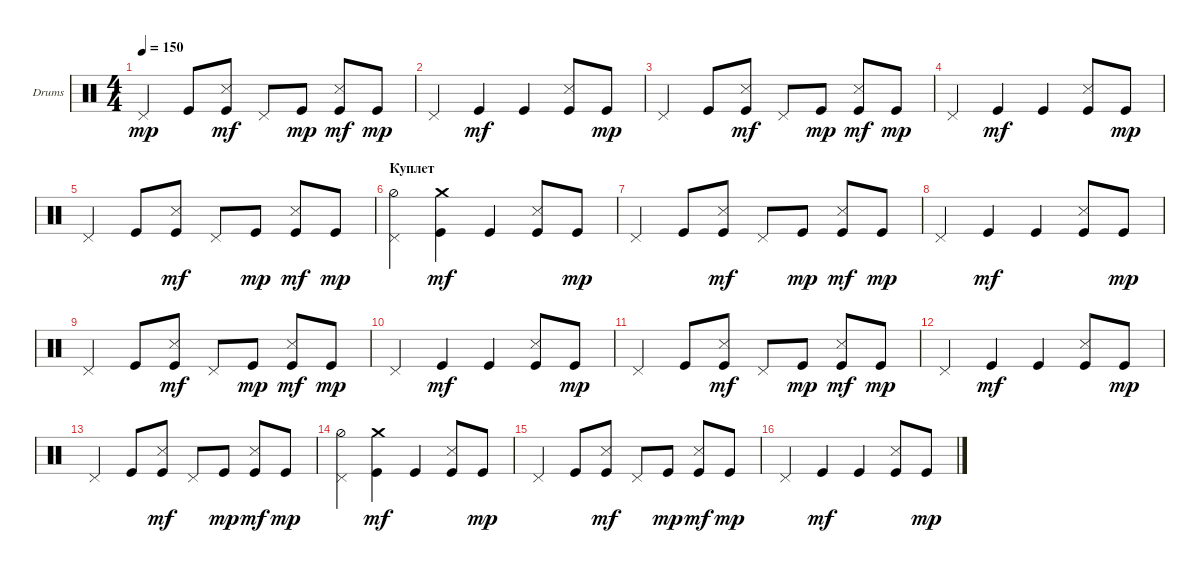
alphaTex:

\defaultSystemsLayout 4
\bracketExtendMode groupsimilarinstruments
\firstSystemTrackNameOrientation horizontal
\otherSystemsTrackNameOrientation horizontal
\track ("Е. Кулаков" "Drums") {instrument percussion}
\staff {score}
\articulation defaults
\ts (4 4)
\tempo 150
\clef neutral
\ks c "Pedal Hi-Hat (hit)".4{dy mp} "Kick (hit)".8
("Kick (hit)" "Snare (side stick) 3").8{dy mf} "Pedal Hi-Hat (hit)".8 "Kick (hit)".8{dy mp} ("Kick (hit)" "Snare (side stick) 3").8{dy mf} "Kick (hit)".8{dy mp} |
"Pedal Hi-Hat (hit)".4 "Kick (hit)".4{dy mf} "Kick (hit)".4 ("Kick (hit)" "Snare (side stick) 3").8 "Kick (hit)".8{dy mp} |
"Pedal Hi-Hat (hit)".4 "Kick (hit)".8 ("Kick (hit)" "Snare (side stick) 3").8{dy mf} "Pedal Hi-Hat (hit)".8 "Kick (hit)".8{dy mp} ("Kick (hit)" "Snare (side stick) 3").8{dy mf} "Kick (hit)".8{dy mp} |
"Pedal Hi-Hat (hit)".4 "Kick (hit)".4{dy mf} "Kick (hit)".4 ("Kick (hit)" "Snare (side stick) 3").8 "Kick (hit)".8{dy mp} |
"Pedal Hi-Hat (hit)".4 "Kick (hit)".8 ("Kick (hit)" "Snare (side stick) 3").8{dy mf} "Pedal Hi-Hat (hit)".8 "Kick (hit)".8{dy mp} ("Kick (hit)" "Snare (side stick) 3").8{dy mf} "Kick (hit)".8{dy mp} |
\section ("" "Куплет")
("Pedal Hi-Hat (hit)" "Hi-Hat (half)").4 ("Kick (hit)" "Crash medium (hit)").4{dy mf} "Kick (hit)".4 ("Kick (hit)" "Snare (side stick) 3").8 "Kick (hit)".8{dy mp} |
"Pedal Hi-Hat (hit)".4 "Kick (hit)".8 ("Kick (hit)" "Snare (side stick) 3").8{dy mf} "Pedal Hi-Hat (hit)".8 "Kick (hit)".8{dy mp} ("Kick (hit)" "Snare (side stick) 3").8{dy mf} "Kick (hit)".8{dy mp} |
"Pedal Hi-Hat (hit)".4 "Kick (hit)".4{dy mf} "Kick (hit)".4 ("Kick (hit)" "Snare (side stick) 3").8 "Kick (hit)".8{dy mp} |
"Pedal Hi-Hat (hit)".4 "Kick (hit)".8 ("Kick (hit)" "Snare (side stick) 3").8{dy mf} "Pedal Hi-Hat (hit)".8 "Kick (hit)".8{dy mp} ("Kick (hit)" "Snare (side stick) 3").8{dy mf} "Kick (hit)".8{dy mp} |
"Pedal Hi-Hat (hit)".4 "Kick (hit)".4{dy mf} "Kick (hit)".4 ("Kick (hit)" "Snare (side stick) 3").8 "Kick (hit)".8{dy mp} |
"Pedal Hi-Hat (hit)".4 "Kick (hit)".8 ("Kick (hit)" "Snare (side stick) 3").8{dy mf} "Pedal Hi-Hat (hit)".8 "Kick (hit)".8{dy mp} ("Kick (hit)" "Snare (side stick) 3").8{dy mf} "Kick (hit)".8{dy mp} |
"Pedal Hi-Hat (hit)".4 "Kick (hit)".4{dy mf} "Kick (hit)".4 ("Kick (hit)" "Snare (side stick) 3").8 "Kick (hit)".8{dy mp} |
"Pedal Hi-Hat (hit)".4 "Kick (hit)".8 ("Kick (hit)" "Snare (side stick) 3").8{dy mf} "Pedal Hi-Hat (hit)".8 "Kick (hit)".8{dy mp} ("Kick (hit)" "Snare (side stick) 3").8{dy mf} "Kick (hit)".8{dy mp} |
("Pedal Hi-Hat (hit)" "Hi-Hat (half)").4 ("Kick (hit)" "Crash medium (hit)").4{dy mf} "Kick (hit)".4 ("Kick (hit)" "Snare (side stick) 3").8 "Kick (hit)".8{dy mp} |
"Pedal Hi-Hat (hit)".4 "Kick (hit)".8 ("Kick (hit)" "Snare (side stick) 3").8{dy mf} "Pedal Hi-Hat (hit)".8 "Kick (hit)".8{dy mp} ("Kick (hit)" "Snare (side stick) 3").8{dy mf} "Kick (hit)".8{dy mp} |
"Pedal Hi-Hat (hit)".4 "Kick (hit)".4{dy mf} "Kick (hit)".4 ("Kick (hit)" "Snare (side stick) 3").8 "Kick (hit)".8{dy mp}
